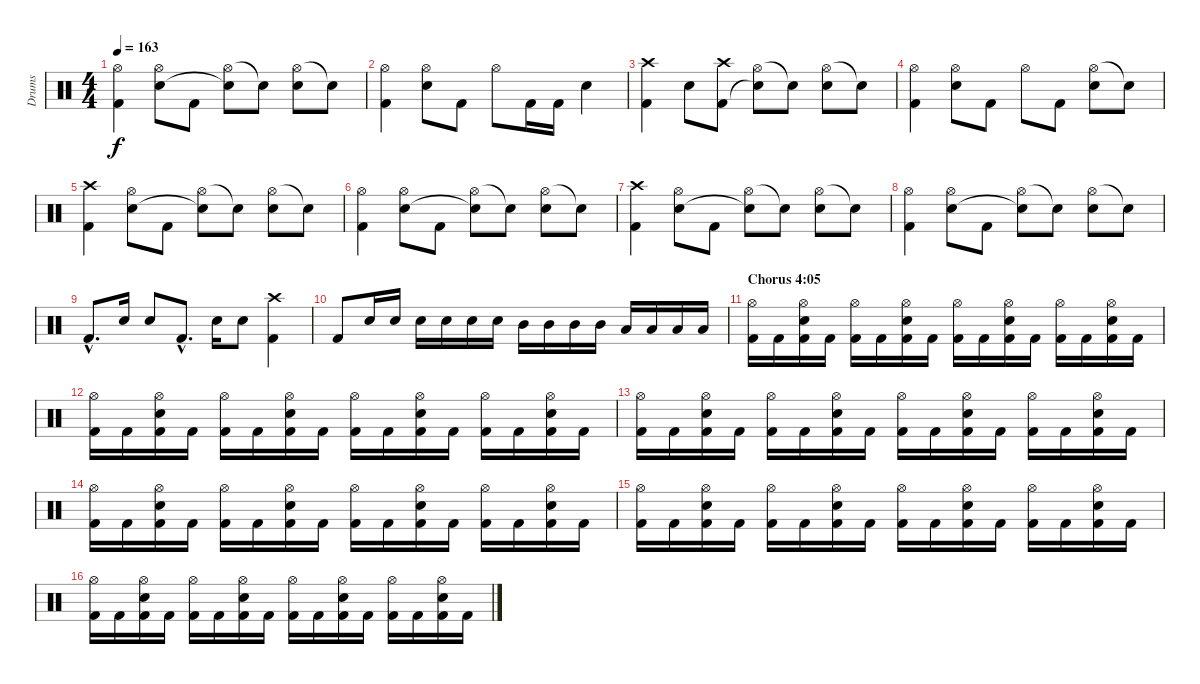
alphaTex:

\track ("Drums" "Drums") {instrument percussion}
\staff {score}
\articulation defaults
\ts (4 4)
\tempo 163
\clef neutral
\ks c
("Hi-Hat (open)" "Kick (hit) 2").4{dy f} ("Hi-Hat (open)" "Snare (hit) 2").8 "Kick (hit) 2".8 ("Hi-Hat (open)" "Snare (hit)"{t}).8 "Snare (hit)"{t}.8 ("Hi-Hat (open)" "Snare (hit) 2").8 "Snare (hit)"{t}.8 |
("Hi-Hat (open)" "Kick (hit) 2").4 ("Hi-Hat (open)" "Snare (hit) 2").8 "Kick (hit) 2".8 "Hi-Hat (open)".8 "Kick (hit) 2".16 "Kick (hit) 2".16 "Snare (hit) 2".4 |
("Crash high (hit)" "Kick (hit) 2").4 "Snare (hit) 2".8 ("Crash high (hit)" "Kick (hit) 2").8 ("Hi-Hat (open)" "Snare (hit)"{t}).8 "Snare (hit)"{t}.8 ("Hi-Hat (open)" "Snare (hit) 2").8 "Snare (hit)"{t}.8 |
("Hi-Hat (open)" "Kick (hit) 2").4 ("Hi-Hat (open)" "Snare (hit) 2").8 "Kick (hit) 2".8 "Hi-Hat (open)".8 "Kick (hit) 2".8 ("Hi-Hat (open)" "Snare (hit) 2").8 "Snare (hit)"{t}.8 |
("Crash high (hit)" "Kick (hit) 2").4 ("Hi-Hat (open)" "Snare (hit) 2").8 "Kick (hit) 2".8 ("Hi-Hat (open)" "Snare (hit)"{t}).8 "Snare (hit)"{t}.8 ("Hi-Hat (open)" "Snare (hit) 2").8 "Snare (hit)"{t}.8 |
("Hi-Hat (open)" "Kick (hit) 2").4 ("Hi-Hat (open)" "Snare (hit) 2").8 "Kick (hit) 2".8 ("Hi-Hat (open)" "Snare (hit)"{t}).8 "Snare (hit)"{t}.8 ("Hi-Hat (open)" "Snare (hit) 2").8 "Snare (hit)"{t}.8 |
("Crash high (hit)" "Kick (hit) 2").4 ("Hi-Hat (open)" "Snare (hit) 2").8 "Kick (hit) 2".8 ("Hi-Hat (open)" "Snare (hit)"{t}).8 "Snare (hit)"{t}.8 ("Hi-Hat (open)" "Snare (hit) 2").8 "Snare (hit)"{t}.8 |
("Hi-Hat (open)" "Kick (hit) 2").4 ("Hi-Hat (open)" "Snare (hit) 2").8 "Kick (hit) 2".8 ("Hi-Hat (open)" "Snare (hit)"{t}).8 "Snare (hit)"{t}.8 ("Hi-Hat (open)" "Snare (hit) 2").8 "Snare (hit)"{t}.8 |
"Kick (hit) 2"{hac}.8{d} "Snare (hit) 2".16 "Snare (hit) 2".8 "Kick (hit) 2"{hac}.8{d} "Snare (hit) 2".16 "Snare (hit) 2".8 ("Kick (hit) 2" "Crash high (hit)").4 |
"Kick (hit) 2".8 "Snare (hit) 2".16 "Snare (hit) 2".16 "Snare (hit) 2".16 "Snare (hit) 2".16 "Snare (hit) 2".16 "Snare (hit) 2".16 "Mid Tom (hit)".16 "Mid Tom (hit)".16 "Mid Tom (hit)".16 "Mid Tom (hit)".16 "Low Tom (hit)".16 "Low Tom (hit)".16 "Low Tom (hit)".16 "Low Tom (hit)".16 |
\section ("" "Chorus 4:05")
("Hi-Hat (open)" "Kick (hit) 2").16 "Kick (hit) 2".16 ("Hi-Hat (open)" "Kick (hit) 2" "Snare (hit) 2").16 "Kick (hit) 2".16 ("Hi-Hat (open)" "Kick (hit) 2").16 "Kick (hit) 2".16 ("Hi-Hat (open)" "Kick (hit) 2" "Snare (hit) 2").16 "Kick (hit) 2".16 ("Hi-Hat (open)" "Kick (hit) 2").16 "Kick (hit) 2".16 ("Hi-Hat (open)" "Kick (hit) 2" "Snare (hit) 2").16 "Kick (hit) 2".16 ("Hi-Hat (open)" "Kick (hit) 2").16 "Kick (hit) 2".16 ("Hi-Hat (open)" "Kick (hit) 2" "Snare (hit) 2").16 "Kick (hit) 2".16 |
("Hi-Hat (open)" "Kick (hit) 2").16 "Kick (hit) 2".16 ("Hi-Hat (open)" "Kick (hit) 2" "Snare (hit) 2").16 "Kick (hit) 2".16 ("Hi-Hat (open)" "Kick (hit) 2").16 "Kick (hit) 2".16 ("Hi-Hat (open)" "Kick (hit) 2" "Snare (hit) 2").16 "Kick (hit) 2".16 ("Hi-Hat (open)" "Kick (hit) 2").16 "Kick (hit) 2".16 ("Hi-Hat (open)" "Kick (hit) 2" "Snare (hit) 2").16 "Kick (hit) 2".16 ("Hi-Hat (open)" "Kick (hit) 2").16 "Kick (hit) 2".16 ("Hi-Hat (open)" "Kick (hit) 2" "Snare (hit) 2").16 "Kick (hit) 2".16 |
("Hi-Hat (open)" "Kick (hit) 2").16 "Kick (hit) 2".16 ("Hi-Hat (open)" "Kick (hit) 2" "Snare (hit) 2").16 "Kick (hit) 2".16 ("Hi-Hat (open)" "Kick (hit) 2").16 "Kick (hit) 2".16 ("Hi-Hat (open)" "Kick (hit) 2" "Snare (hit) 2").16 "Kick (hit) 2".16 ("Hi-Hat (open)" "Kick (hit) 2").16 "Kick (hit) 2".16 ("Hi-Hat (open)" "Kick (hit) 2" "Snare (hit) 2").16 "Kick (hit) 2".16 ("Hi-Hat (open)" "Kick (hit) 2").16 "Kick (hit) 2".16 ("Hi-Hat (open)" "Kick (hit) 2" "Snare (hit) 2").16 "Kick (hit) 2".16 |
("Hi-Hat (open)" "Kick (hit) 2").16 "Kick (hit) 2".16 ("Hi-Hat (open)" "Kick (hit) 2" "Snare (hit) 2").16 "Kick (hit) 2".16 ("Hi-Hat (open)" "Kick (hit) 2").16 "Kick (hit) 2".16 ("Hi-Hat (open)" "Kick (hit) 2" "Snare (hit) 2").16 "Kick (hit) 2".16 ("Hi-Hat (open)" "Kick (hit) 2").16 "Kick (hit) 2".16 ("Hi-Hat (open)" "Kick (hit) 2" "Snare (hit) 2").16 "Kick (hit) 2".16 ("Hi-Hat (open)" "Kick (hit) 2").16 "Kick (hit) 2".16 ("Hi-Hat (open)" "Kick (hit) 2" "Snare (hit) 2").16 "Kick (hit) 2".16 |
("Hi-Hat (open)" "Kick (hit) 2").16 "Kick (hit) 2".16 ("Hi-Hat (open)" "Kick (hit) 2" "Snare (hit) 2").16 "Kick (hit) 2".16 ("Hi-Hat (open)" "Kick (hit) 2").16 "Kick (hit) 2".16 ("Hi-Hat (open)" "Kick (hit) 2" "Snare (hit) 2").16 "Kick (hit) 2".16 ("Hi-Hat (open)" "Kick (hit) 2").16 "Kick (hit) 2".16 ("Hi-Hat (open)" "Kick (hit) 2" "Snare (hit) 2").16 "Kick (hit) 2".16 ("Hi-Hat (open)" "Kick (hit) 2").16 "Kick (hit) 2".16 ("Hi-Hat (open)" "Kick (hit) 2" "Snare (hit) 2").16 "Kick (hit) 2".16 |
("Hi-Hat (open)" "Kick (hit) 2").16 "Kick (hit) 2".16 ("Hi-Hat (open)" "Kick (hit) 2" "Snare (hit) 2").16 "Kick (hit) 2".16 ("Hi-Hat (open)" "Kick (hit) 2").16 "Kick (hit) 2".16 ("Hi-Hat (open)" "Kick (hit) 2" "Snare (hit) 2").16 "Kick (hit) 2".16 ("Hi-Hat (open)" "Kick (hit) 2").16 "Kick (hit) 2".16 ("Hi-Hat (open)" "Kick (hit) 2" "Snare (hit) 2").16 "Kick (hit) 2".16 ("Hi-Hat (open)" "Kick (hit) 2").16 "Kick (hit) 2".16 ("Hi-Hat (open)" "Kick (hit) 2" "Snare (hit) 2").16 "Kick (hit) 2".16
